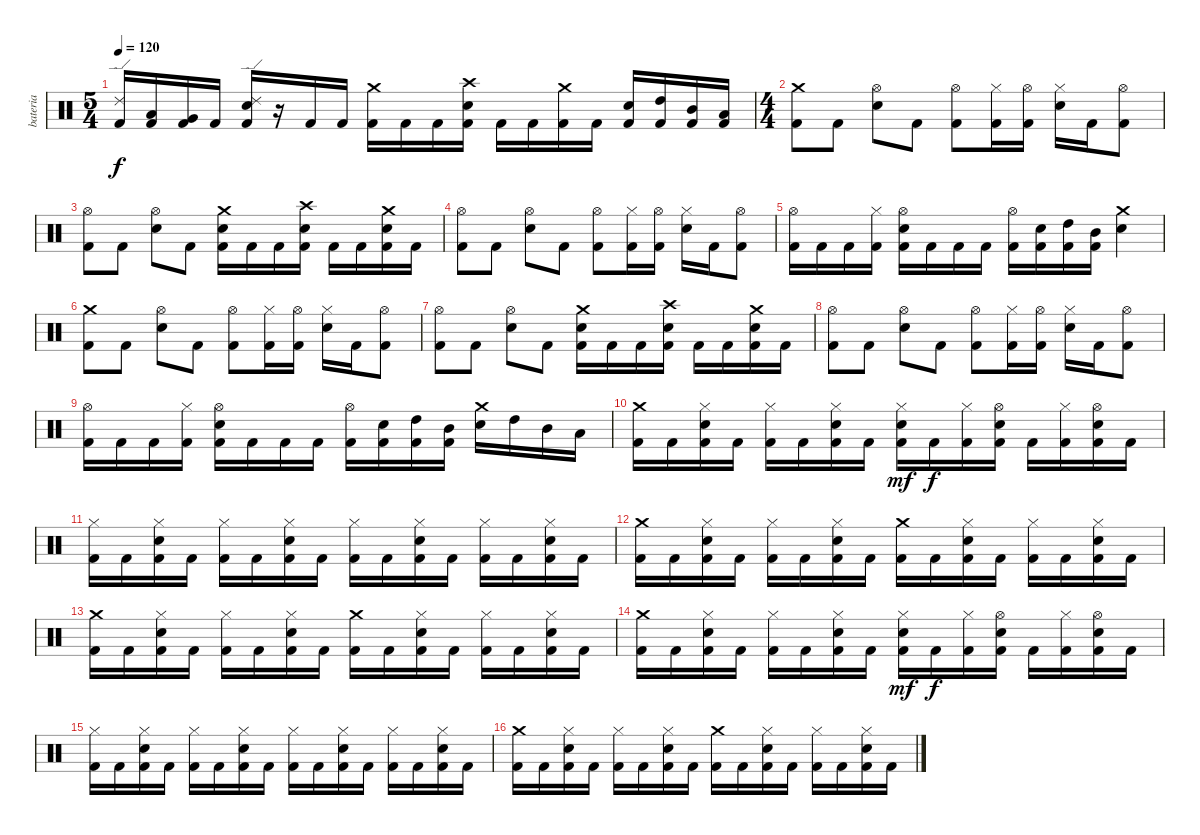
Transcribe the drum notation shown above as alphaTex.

\track ("bateria" "bateria") {instrument percussion}
\staff {score}
\articulation defaults
\ts (5 4)
\tempo 120
\clef neutral
\ks c
("Ride (edge) 2" "Kick (hit) 2").16{dy f} ("Low Tom (hit)" "Kick (hit) 2").16 ("Very Low Tom (hit)" "Kick (hit) 2").16 "Kick (hit) 2".16 ("Ride (edge) 2" "Electric Snare (hit)" "Kick (hit) 2").16 r.16 "Kick (hit) 2".16 "Kick (hit) 2".16 ("Crash medium (hit)" "Kick (hit) 2").16 "Kick (hit) 2".16 "Kick (hit) 2".16 ("Crash high (hit)" "Electric Snare (hit)" "Kick (hit) 2").16 "Kick (hit) 2".16 "Kick (hit) 2".16 ("Crash medium (hit)" "Kick (hit) 2").16 "Kick (hit) 2".16 ("Electric Snare (hit)" "Kick (hit) 2").16 ("High Tom (hit)" "Kick (hit) 2").16 ("Mid Tom (hit)" "Kick (hit) 2").16 ("Low Tom (hit)" "Kick (hit) 2").16 |
\ts (4 4)
("Crash medium (hit)" "Kick (hit) 2").8 "Kick (hit) 2".8 ("Hi-Hat (open)" "Electric Snare (hit)").8 "Kick (hit) 2".8 ("Hi-Hat (open)" "Kick (hit) 2").8 ("Hi-Hat (closed)" "Kick (hit) 2").16 ("Hi-Hat (open)" "Kick (hit) 2").16 ("Hi-Hat (closed)" "Electric Snare (hit)").16 "Kick (hit) 2".16 ("Hi-Hat (open)" "Kick (hit) 2").8 |
("Hi-Hat (open)" "Kick (hit) 2").8 "Kick (hit) 2".8 ("Hi-Hat (open)" "Electric Snare (hit)").8 "Kick (hit) 2".8 ("Crash medium (hit)" "Electric Snare (hit)" "Kick (hit) 2").16 "Kick (hit) 2".16 "Kick (hit) 2".16 ("Crash high (hit)" "Electric Snare (hit)" "Kick (hit) 2").16 "Kick (hit) 2".16 "Kick (hit) 2".16 ("Crash medium (hit)" "Electric Snare (hit)" "Kick (hit) 2").16 "Kick (hit) 2".16 |
("Hi-Hat (open)" "Kick (hit) 2").8 "Kick (hit) 2".8 ("Hi-Hat (open)" "Electric Snare (hit)").8 "Kick (hit) 2".8 ("Hi-Hat (open)" "Kick (hit) 2").8 ("Hi-Hat (closed)" "Kick (hit) 2").16 ("Hi-Hat (open)" "Kick (hit) 2").16 ("Hi-Hat (closed)" "Electric Snare (hit)").16 "Kick (hit) 2".16 ("Hi-Hat (open)" "Kick (hit) 2").8 |
("Hi-Hat (open)" "Kick (hit) 2").16 "Kick (hit) 2".16 "Kick (hit) 2".16 ("Hi-Hat (closed)" "Kick (hit) 2").16 ("Hi-Hat (open)" "Electric Snare (hit)" "Kick (hit) 2").16 "Kick (hit) 2".16 "Kick (hit) 2".16 "Kick (hit) 2".16 ("Hi-Hat (open)" "Kick (hit) 2").16 ("Electric Snare (hit)" "Kick (hit) 2").16 ("High Tom (hit)" "Kick (hit) 2").16 ("Mid Tom (hit)" "Kick (hit) 2").16 ("Crash medium (hit)" "Electric Snare (hit)").4 |
("Crash medium (hit)" "Kick (hit) 2").8 "Kick (hit) 2".8 ("Hi-Hat (open)" "Electric Snare (hit)").8 "Kick (hit) 2".8 ("Hi-Hat (open)" "Kick (hit) 2").8 ("Hi-Hat (closed)" "Kick (hit) 2").16 ("Hi-Hat (open)" "Kick (hit) 2").16 ("Hi-Hat (closed)" "Electric Snare (hit)").16 "Kick (hit) 2".16 ("Hi-Hat (open)" "Kick (hit) 2").8 |
("Hi-Hat (open)" "Kick (hit) 2").8 "Kick (hit) 2".8 ("Hi-Hat (open)" "Electric Snare (hit)").8 "Kick (hit) 2".8 ("Crash medium (hit)" "Electric Snare (hit)" "Kick (hit) 2").16 "Kick (hit) 2".16 "Kick (hit) 2".16 ("Crash high (hit)" "Electric Snare (hit)" "Kick (hit) 2").16 "Kick (hit) 2".16 "Kick (hit) 2".16 ("Crash medium (hit)" "Electric Snare (hit)" "Kick (hit) 2").16 "Kick (hit) 2".16 |
("Hi-Hat (open)" "Kick (hit) 2").8 "Kick (hit) 2".8 ("Hi-Hat (open)" "Electric Snare (hit)").8 "Kick (hit) 2".8 ("Hi-Hat (open)" "Kick (hit) 2").8 ("Hi-Hat (closed)" "Kick (hit) 2").16 ("Hi-Hat (open)" "Kick (hit) 2").16 ("Hi-Hat (closed)" "Electric Snare (hit)").16 "Kick (hit) 2".16 ("Hi-Hat (open)" "Kick (hit) 2").8 |
("Hi-Hat (open)" "Kick (hit) 2").16 "Kick (hit) 2".16 "Kick (hit) 2".16 ("Hi-Hat (closed)" "Kick (hit) 2").16 ("Hi-Hat (open)" "Electric Snare (hit)" "Kick (hit) 2").16 "Kick (hit) 2".16 "Kick (hit) 2".16 "Kick (hit) 2".16 ("Hi-Hat (open)" "Kick (hit) 2").16 ("Electric Snare (hit)" "Kick (hit) 2").16 ("High Tom (hit)" "Kick (hit) 2").16 ("Mid Tom (hit)" "Kick (hit) 2").16 ("Crash medium (hit)" "Electric Snare (hit)").16 "High Tom (hit)".16 "Mid Tom (hit)".16 "Low Tom (hit)".16 |
("Crash medium (hit)" "Kick (hit) 2").16 "Kick (hit) 2".16 ("Hi-Hat (closed)" "Electric Snare (hit)" "Kick (hit) 2").16 "Kick (hit) 2".16 ("Hi-Hat (closed)" "Kick (hit) 2").16 "Kick (hit) 2".16 ("Hi-Hat (closed)" "Electric Snare (hit)" "Kick (hit) 2").16 "Kick (hit) 2".16 ("Hi-Hat (closed)" "Electric Snare (hit)" "Kick (hit) 2").16{dy mf} "Kick (hit) 2".16{dy f} ("Hi-Hat (closed)" "Kick (hit) 2").16 ("Hi-Hat (open)" "Electric Snare (hit)" "Kick (hit) 2").16 "Kick (hit) 2".16 ("Hi-Hat (closed)" "Kick (hit) 2").16 ("Hi-Hat (open)" "Electric Snare (hit)" "Kick (hit) 2").16 "Kick (hit) 2".16 |
("Hi-Hat (closed)" "Kick (hit) 2").16 "Kick (hit) 2".16 ("Hi-Hat (closed)" "Electric Snare (hit)" "Kick (hit) 2").16 "Kick (hit) 2".16 ("Hi-Hat (closed)" "Kick (hit) 2").16 "Kick (hit) 2".16 ("Hi-Hat (closed)" "Electric Snare (hit)" "Kick (hit) 2").16 "Kick (hit) 2".16 ("Hi-Hat (closed)" "Kick (hit) 2").16 "Kick (hit) 2".16 ("Hi-Hat (closed)" "Electric Snare (hit)" "Kick (hit) 2").16 "Kick (hit) 2".16 ("Hi-Hat (closed)" "Kick (hit) 2").16 "Kick (hit) 2".16 ("Hi-Hat (closed)" "Electric Snare (hit)" "Kick (hit) 2").16 "Kick (hit) 2".16 |
("Crash medium (hit)" "Kick (hit) 2").16 "Kick (hit) 2".16 ("Hi-Hat (closed)" "Electric Snare (hit)" "Kick (hit) 2").16 "Kick (hit) 2".16 ("Hi-Hat (closed)" "Kick (hit) 2").16 "Kick (hit) 2".16 ("Hi-Hat (closed)" "Electric Snare (hit)" "Kick (hit) 2").16 "Kick (hit) 2".16 ("Crash medium (hit)" "Kick (hit) 2").16 "Kick (hit) 2".16 ("Hi-Hat (closed)" "Electric Snare (hit)" "Kick (hit) 2").16 "Kick (hit) 2".16 ("Hi-Hat (closed)" "Kick (hit) 2").16 "Kick (hit) 2".16 ("Hi-Hat (closed)" "Electric Snare (hit)" "Kick (hit) 2").16 "Kick (hit) 2".16 |
("Crash medium (hit)" "Kick (hit) 2").16 "Kick (hit) 2".16 ("Hi-Hat (closed)" "Electric Snare (hit)" "Kick (hit) 2").16 "Kick (hit) 2".16 ("Hi-Hat (closed)" "Kick (hit) 2").16 "Kick (hit) 2".16 ("Hi-Hat (closed)" "Electric Snare (hit)" "Kick (hit) 2").16 "Kick (hit) 2".16 ("Crash medium (hit)" "Kick (hit) 2").16 "Kick (hit) 2".16 ("Hi-Hat (closed)" "Electric Snare (hit)" "Kick (hit) 2").16 "Kick (hit) 2".16 ("Hi-Hat (closed)" "Kick (hit) 2").16 "Kick (hit) 2".16 ("Hi-Hat (closed)" "Electric Snare (hit)" "Kick (hit) 2").16 "Kick (hit) 2".16 |
("Crash medium (hit)" "Kick (hit) 2").16 "Kick (hit) 2".16 ("Hi-Hat (closed)" "Electric Snare (hit)" "Kick (hit) 2").16 "Kick (hit) 2".16 ("Hi-Hat (closed)" "Kick (hit) 2").16 "Kick (hit) 2".16 ("Hi-Hat (closed)" "Electric Snare (hit)" "Kick (hit) 2").16 "Kick (hit) 2".16 ("Hi-Hat (closed)" "Electric Snare (hit)" "Kick (hit) 2").16{dy mf} "Kick (hit) 2".16{dy f} ("Hi-Hat (closed)" "Kick (hit) 2").16 ("Hi-Hat (open)" "Electric Snare (hit)" "Kick (hit) 2").16 "Kick (hit) 2".16 ("Hi-Hat (closed)" "Kick (hit) 2").16 ("Hi-Hat (open)" "Electric Snare (hit)" "Kick (hit) 2").16 "Kick (hit) 2".16 |
("Hi-Hat (closed)" "Kick (hit) 2").16 "Kick (hit) 2".16 ("Hi-Hat (closed)" "Electric Snare (hit)" "Kick (hit) 2").16 "Kick (hit) 2".16 ("Hi-Hat (closed)" "Kick (hit) 2").16 "Kick (hit) 2".16 ("Hi-Hat (closed)" "Electric Snare (hit)" "Kick (hit) 2").16 "Kick (hit) 2".16 ("Hi-Hat (closed)" "Kick (hit) 2").16 "Kick (hit) 2".16 ("Hi-Hat (closed)" "Electric Snare (hit)" "Kick (hit) 2").16 "Kick (hit) 2".16 ("Hi-Hat (closed)" "Kick (hit) 2").16 "Kick (hit) 2".16 ("Hi-Hat (closed)" "Electric Snare (hit)" "Kick (hit) 2").16 "Kick (hit) 2".16 |
("Crash medium (hit)" "Kick (hit) 2").16 "Kick (hit) 2".16 ("Hi-Hat (closed)" "Electric Snare (hit)" "Kick (hit) 2").16 "Kick (hit) 2".16 ("Hi-Hat (closed)" "Kick (hit) 2").16 "Kick (hit) 2".16 ("Hi-Hat (closed)" "Electric Snare (hit)" "Kick (hit) 2").16 "Kick (hit) 2".16 ("Crash medium (hit)" "Kick (hit) 2").16 "Kick (hit) 2".16 ("Hi-Hat (closed)" "Electric Snare (hit)" "Kick (hit) 2").16 "Kick (hit) 2".16 ("Hi-Hat (closed)" "Kick (hit) 2").16 "Kick (hit) 2".16 ("Hi-Hat (closed)" "Electric Snare (hit)" "Kick (hit) 2").16 "Kick (hit) 2".16
